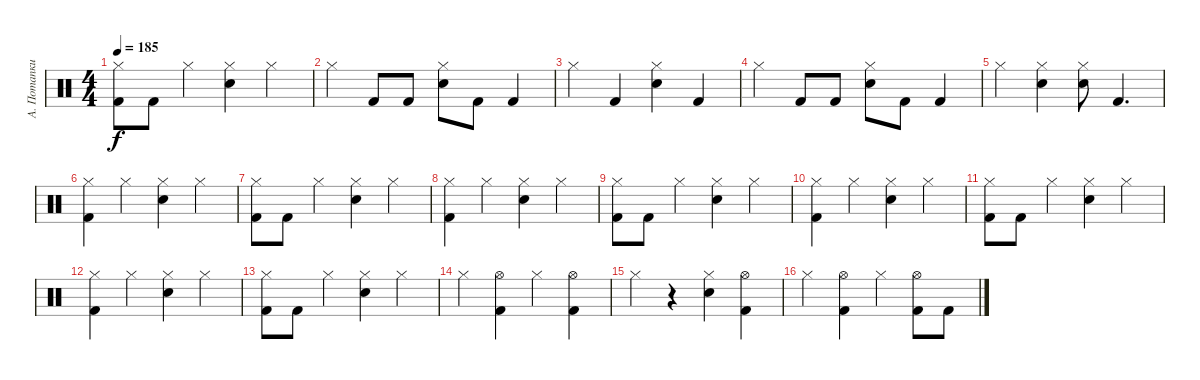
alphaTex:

\track ("А. Потапкин" "А. Потапки") {instrument percussion}
\staff {score}
\articulation defaults
\ts (4 4)
\tempo 185
\clef neutral
\ks c
("Hi-Hat (closed)" "Kick (hit) 2").8{dy f} "Kick (hit) 2".8 "Hi-Hat (closed)".4 ("Hi-Hat (closed)" "Snare (hit) 2").4 "Hi-Hat (closed)".4 |
"Hi-Hat (closed)".4 "Kick (hit) 2".8 "Kick (hit) 2".8 ("Hi-Hat (closed)" "Snare (hit) 2").8 "Kick (hit) 2".8 "Kick (hit) 2".4 |
"Hi-Hat (closed)".4 "Kick (hit) 2".4 ("Hi-Hat (closed)" "Snare (hit) 2").4 "Kick (hit) 2".4 |
"Hi-Hat (closed)".4 "Kick (hit) 2".8 "Kick (hit) 2".8 ("Hi-Hat (closed)" "Snare (hit) 2").8 "Kick (hit) 2".8 "Kick (hit) 2".4 |
"Hi-Hat (closed)".4 ("Hi-Hat (closed)" "Snare (hit) 2").4 ("Hi-Hat (closed)" "Snare (hit) 2").8 "Kick (hit) 2".4{d} |
("Hi-Hat (closed)" "Kick (hit) 2").4 "Hi-Hat (closed)".4 ("Hi-Hat (closed)" "Snare (hit) 2").4 "Hi-Hat (closed)".4 |
("Hi-Hat (closed)" "Kick (hit) 2").8 "Kick (hit) 2".8 "Hi-Hat (closed)".4 ("Hi-Hat (closed)" "Snare (hit) 2").4 "Hi-Hat (closed)".4 |
("Hi-Hat (closed)" "Kick (hit) 2").4 "Hi-Hat (closed)".4 ("Hi-Hat (closed)" "Snare (hit) 2").4 "Hi-Hat (closed)".4 |
("Hi-Hat (closed)" "Kick (hit) 2").8 "Kick (hit) 2".8 "Hi-Hat (closed)".4 ("Hi-Hat (closed)" "Snare (hit) 2").4 "Hi-Hat (closed)".4 |
("Hi-Hat (closed)" "Kick (hit) 2").4 "Hi-Hat (closed)".4 ("Hi-Hat (closed)" "Snare (hit) 2").4 "Hi-Hat (closed)".4 |
("Hi-Hat (closed)" "Kick (hit) 2").8 "Kick (hit) 2".8 "Hi-Hat (closed)".4 ("Hi-Hat (closed)" "Snare (hit) 2").4 "Hi-Hat (closed)".4 |
("Hi-Hat (closed)" "Kick (hit) 2").4 "Hi-Hat (closed)".4 ("Hi-Hat (closed)" "Snare (hit) 2").4 "Hi-Hat (closed)".4 |
("Hi-Hat (closed)" "Kick (hit) 2").8 "Kick (hit) 2".8 "Hi-Hat (closed)".4 ("Hi-Hat (closed)" "Snare (hit) 2").4 "Hi-Hat (closed)".4 |
"Hi-Hat (closed)".4 ("Hi-Hat (open)" "Kick (hit) 2").4 "Hi-Hat (closed)".4 ("Hi-Hat (open)" "Kick (hit) 2").4 |
"Hi-Hat (closed)".4 r.4 ("Hi-Hat (closed)" "Snare (hit) 2").4 ("Hi-Hat (open)" "Kick (hit) 2").4 |
"Hi-Hat (closed)".4 ("Hi-Hat (open)" "Kick (hit) 2").4 "Hi-Hat (closed)".4 ("Hi-Hat (open)" "Kick (hit) 2").8 "Kick (hit) 2".8
